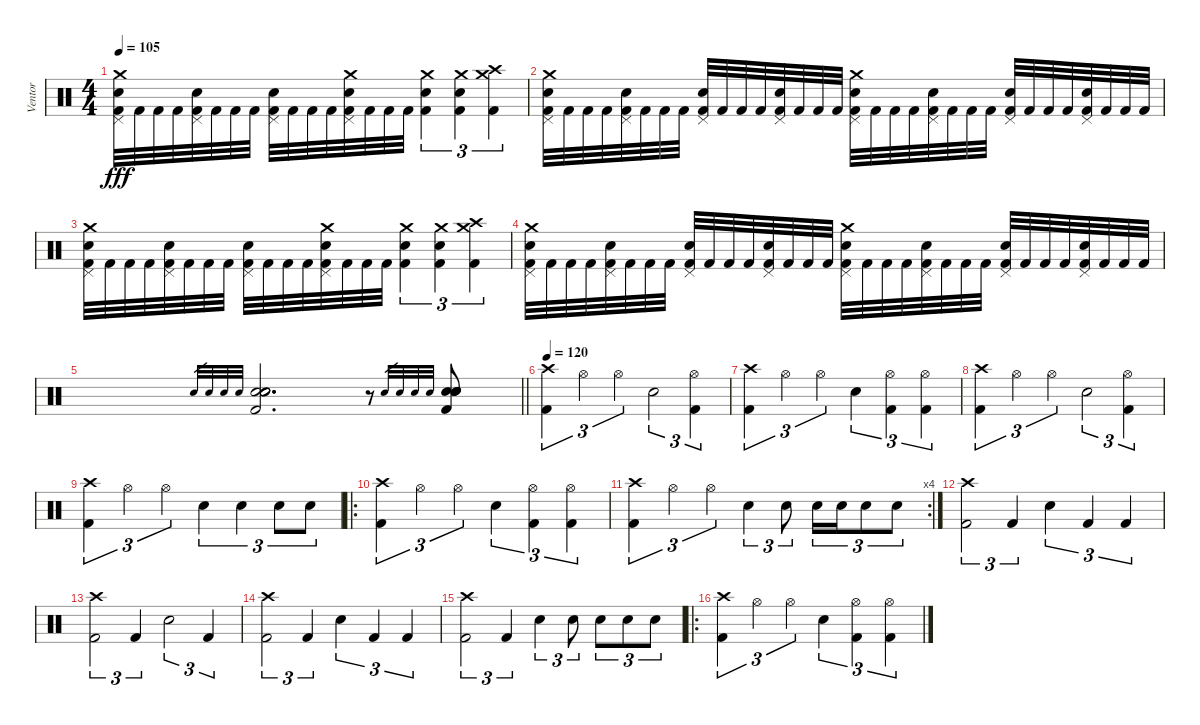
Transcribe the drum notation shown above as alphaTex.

\track ("Ventor" "Ventor") {instrument percussion}
\staff {score}
\articulation defaults
\ts (4 4)
\tempo 105
\clef neutral
\ks c
("Crash medium (hit)" "Pedal Hi-Hat (hit)" "Electric Snare (hit)" "Kick (hit) 2").32{dy fff} "Kick (hit) 2".32 "Kick (hit) 2".32 "Kick (hit) 2".32 ("Pedal Hi-Hat (hit)" "Electric Snare (hit)" "Kick (hit) 2").32 "Kick (hit) 2".32 "Kick (hit) 2".32 "Kick (hit) 2".32 ("Pedal Hi-Hat (hit)" "Electric Snare (hit)" "Kick (hit) 2").32 "Kick (hit) 2".32 "Kick (hit) 2".32 "Kick (hit) 2".32 ("Crash medium (hit)" "Pedal Hi-Hat (hit)" "Electric Snare (hit)" "Kick (hit) 2").32 "Kick (hit) 2".32 "Kick (hit) 2".32 "Kick (hit) 2".32 ("Crash medium (hit)" "Electric Snare (hit)" "Kick (hit) 2").4{tu (3 2)} ("Crash medium (hit)" "Electric Snare (hit)" "Kick (hit) 2").4{tu (3 2)} ("Crash high (hit)" "Crash medium (hit)" "Kick (hit) 2").4{tu (3 2)} |
("Crash medium (hit)" "Pedal Hi-Hat (hit)" "Electric Snare (hit)" "Kick (hit) 2").32 "Kick (hit) 2".32 "Kick (hit) 2".32 "Kick (hit) 2".32 ("Pedal Hi-Hat (hit)" "Electric Snare (hit)" "Kick (hit) 2").32 "Kick (hit) 2".32 "Kick (hit) 2".32 "Kick (hit) 2".32 ("Pedal Hi-Hat (hit)" "Electric Snare (hit)" "Kick (hit) 2").32 "Kick (hit) 2".32 "Kick (hit) 2".32 "Kick (hit) 2".32 ("Pedal Hi-Hat (hit)" "Electric Snare (hit)" "Kick (hit) 2").32 "Kick (hit) 2".32 "Kick (hit) 2".32 "Kick (hit) 2".32 ("Crash medium (hit)" "Pedal Hi-Hat (hit)" "Electric Snare (hit)" "Kick (hit) 2").32 "Kick (hit) 2".32 "Kick (hit) 2".32 "Kick (hit) 2".32 ("Pedal Hi-Hat (hit)" "Electric Snare (hit)" "Kick (hit) 2").32 "Kick (hit) 2".32 "Kick (hit) 2".32 "Kick (hit) 2".32 ("Pedal Hi-Hat (hit)" "Electric Snare (hit)" "Kick (hit) 2").32 "Kick (hit) 2".32 "Kick (hit) 2".32 "Kick (hit) 2".32 ("Pedal Hi-Hat (hit)" "Electric Snare (hit)" "Kick (hit) 2").32 "Kick (hit) 2".32 "Kick (hit) 2".32 "Kick (hit) 2".32 |
("Crash medium (hit)" "Pedal Hi-Hat (hit)" "Electric Snare (hit)" "Kick (hit) 2").32 "Kick (hit) 2".32 "Kick (hit) 2".32 "Kick (hit) 2".32 ("Pedal Hi-Hat (hit)" "Electric Snare (hit)" "Kick (hit) 2").32 "Kick (hit) 2".32 "Kick (hit) 2".32 "Kick (hit) 2".32 ("Pedal Hi-Hat (hit)" "Electric Snare (hit)" "Kick (hit) 2").32 "Kick (hit) 2".32 "Kick (hit) 2".32 "Kick (hit) 2".32 ("Crash medium (hit)" "Pedal Hi-Hat (hit)" "Electric Snare (hit)" "Kick (hit) 2").32 "Kick (hit) 2".32 "Kick (hit) 2".32 "Kick (hit) 2".32 ("Crash medium (hit)" "Electric Snare (hit)" "Kick (hit) 2").4{tu (3 2)} ("Crash medium (hit)" "Electric Snare (hit)" "Kick (hit) 2").4{tu (3 2)} ("Crash high (hit)" "Crash medium (hit)" "Kick (hit) 2").4{tu (3 2)} |
("Crash medium (hit)" "Pedal Hi-Hat (hit)" "Electric Snare (hit)" "Kick (hit) 2").32 "Kick (hit) 2".32 "Kick (hit) 2".32 "Kick (hit) 2".32 ("Pedal Hi-Hat (hit)" "Electric Snare (hit)" "Kick (hit) 2").32 "Kick (hit) 2".32 "Kick (hit) 2".32 "Kick (hit) 2".32 ("Pedal Hi-Hat (hit)" "Electric Snare (hit)" "Kick (hit) 2").32 "Kick (hit) 2".32 "Kick (hit) 2".32 "Kick (hit) 2".32 ("Pedal Hi-Hat (hit)" "Electric Snare (hit)" "Kick (hit) 2").32 "Kick (hit) 2".32 "Kick (hit) 2".32 "Kick (hit) 2".32 ("Crash medium (hit)" "Pedal Hi-Hat (hit)" "Electric Snare (hit)" "Kick (hit) 2").32 "Kick (hit) 2".32 "Kick (hit) 2".32 "Kick (hit) 2".32 ("Pedal Hi-Hat (hit)" "Electric Snare (hit)" "Kick (hit) 2").32 "Kick (hit) 2".32 "Kick (hit) 2".32 "Kick (hit) 2".32 ("Pedal Hi-Hat (hit)" "Electric Snare (hit)" "Kick (hit) 2").32 "Kick (hit) 2".32 "Kick (hit) 2".32 "Kick (hit) 2".32 ("Pedal Hi-Hat (hit)" "Electric Snare (hit)" "Kick (hit) 2").32 "Kick (hit) 2".32 "Kick (hit) 2".32 "Kick (hit) 2".32 |
\barLineRight lightlight "Electric Snare (hit)".32{gr} "Electric Snare (hit)".32{gr} "Electric Snare (hit)".32{gr} "Electric Snare (hit)".32{gr}
("Electric Snare (hit)" "Electric Snare (hit)" "Electric Snare (hit)" "Electric Snare (hit)" "Kick (hit) 2").2{d} r.8 "Electric Snare (hit)".32{gr} "Electric Snare (hit)".32{gr} "Electric Snare (hit)".32{gr} "Electric Snare (hit)".32{gr} ("Electric Snare (hit)" "Electric Snare (hit)" "Electric Snare (hit)" "Electric Snare (hit)" "Kick (hit) 2").8 |
\tempo 120
("Crash high (hit)" "Kick (hit) 2").4{tu (3 2)} "Hi-Hat (open)".4{tu (3 2)} "Hi-Hat (open)".4{tu (3 2)} "Electric Snare (hit)".2{tu (3 2)} ("Hi-Hat (open)" "Kick (hit) 2").4{tu (3 2)} |
("Crash high (hit)" "Kick (hit) 2").4{tu (3 2)} "Hi-Hat (open)".4{tu (3 2)} "Hi-Hat (open)".4{tu (3 2)} "Electric Snare (hit)".4{tu (3 2)} ("Hi-Hat (open)" "Kick (hit) 2").4{tu (3 2)} ("Hi-Hat (open)" "Kick (hit) 2").4{tu (3 2)} |
("Crash high (hit)" "Kick (hit) 2").4{tu (3 2)} "Hi-Hat (open)".4{tu (3 2)} "Hi-Hat (open)".4{tu (3 2)} "Electric Snare (hit)".2{tu (3 2)} ("Hi-Hat (open)" "Kick (hit) 2").4{tu (3 2)} |
("Crash high (hit)" "Kick (hit) 2").4{tu (3 2)} "Hi-Hat (open)".4{tu (3 2)} "Hi-Hat (open)".4{tu (3 2)} "Electric Snare (hit)".4{tu (3 2)} "Electric Snare (hit)".4{tu (3 2)} "Electric Snare (hit)".8{tu (3 2)} "Electric Snare (hit)".8{tu (3 2)} |
\ro
("Crash high (hit)" "Kick (hit) 2").4{tu (3 2)} "Hi-Hat (open)".4{tu (3 2)} "Hi-Hat (open)".4{tu (3 2)} "Electric Snare (hit)".4{tu (3 2)} ("Hi-Hat (open)" "Kick (hit) 2").4{tu (3 2)} ("Hi-Hat (open)" "Kick (hit) 2").4{tu (3 2)} |
\rc 4
("Crash high (hit)" "Kick (hit) 2").4{tu (3 2)} "Hi-Hat (open)".4{tu (3 2)} "Hi-Hat (open)".4{tu (3 2)} "Electric Snare (hit)".4{tu (3 2)} "Electric Snare (hit)".8{tu (3 2)} "Electric Snare (hit)".16{tu (3 2)} "Electric Snare (hit)".16{tu (3 2)} "Electric Snare (hit)".8{tu (3 2)} "Electric Snare (hit)".8{tu (3 2)} |
("Crash high (hit)" "Kick (hit) 2").2{tu (3 2)} "Kick (hit) 2".4{tu (3 2)} "Electric Snare (hit)".4{tu (3 2)} "Kick (hit) 2".4{tu (3 2)} "Kick (hit) 2".4{tu (3 2)} |
("Crash high (hit)" "Kick (hit) 2").2{tu (3 2)} "Kick (hit) 2".4{tu (3 2)} "Electric Snare (hit)".2{tu (3 2)} "Kick (hit) 2".4{tu (3 2)} |
("Crash high (hit)" "Kick (hit) 2").2{tu (3 2)} "Kick (hit) 2".4{tu (3 2)} "Electric Snare (hit)".4{tu (3 2)} "Kick (hit) 2".4{tu (3 2)} "Kick (hit) 2".4{tu (3 2)} |
("Crash high (hit)" "Kick (hit) 2").2{tu (3 2)} "Kick (hit) 2".4{tu (3 2)} "Electric Snare (hit)".4{tu (3 2)} "Electric Snare (hit)".8{tu (3 2)} "Electric Snare (hit)".8{tu (3 2)} "Electric Snare (hit)".8{tu (3 2)} "Electric Snare (hit)".8{tu (3 2)} |
\ro
("Crash high (hit)" "Kick (hit) 2").4{tu (3 2)} "Hi-Hat (open)".4{tu (3 2)} "Hi-Hat (open)".4{tu (3 2)} "Electric Snare (hit)".4{tu (3 2)} ("Hi-Hat (open)" "Kick (hit) 2").4{tu (3 2)} ("Hi-Hat (open)" "Kick (hit) 2").4{tu (3 2)}
